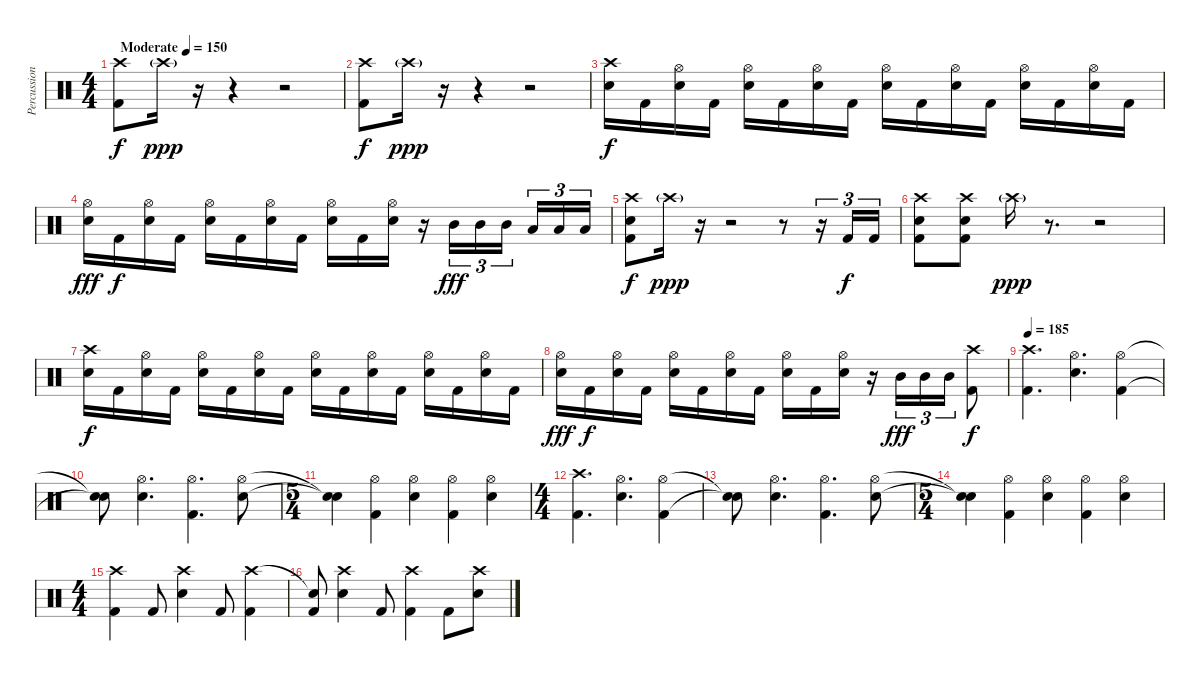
\track ("Percussion" "Percussion") {instrument percussion}
\staff {score}
\articulation defaults
\ts (4 4)
\tempo (150 "Moderate")
\clef neutral
\ks c
("Crash high (hit)" "Kick (hit) 2").8{dy f} "Crash high (hit)"{g}.16{dy ppp} r.16 r.4 r.2 |
("Crash high (hit)" "Kick (hit) 2").8{dy f} "Crash high (hit)"{g}.16{dy ppp} r.16 r.4 r.2 |
("Crash high (hit)" "Snare (hit) 2").16{dy f} "Kick (hit) 2".16 ("Hi-Hat (open)" "Snare (hit) 2").16 "Kick (hit) 2".16 ("Hi-Hat (open)" "Snare (hit) 2").16 "Kick (hit) 2".16 ("Hi-Hat (open)" "Snare (hit) 2").16 "Kick (hit) 2".16 ("Hi-Hat (open)" "Snare (hit) 2").16 "Kick (hit) 2".16 ("Hi-Hat (open)" "Snare (hit) 2").16 "Kick (hit) 2".16 ("Hi-Hat (open)" "Snare (hit) 2").16 "Kick (hit) 2".16 ("Hi-Hat (open)" "Snare (hit) 2").16 "Kick (hit) 2".16 |
("Hi-Hat (open)" "Snare (hit) 2").16{dy fff} "Kick (hit) 2".16{dy f} ("Hi-Hat (open)" "Snare (hit) 2").16 "Kick (hit) 2".16 ("Hi-Hat (open)" "Snare (hit) 2").16 "Kick (hit) 2".16 ("Hi-Hat (open)" "Snare (hit) 2").16 "Kick (hit) 2".16 ("Hi-Hat (open)" "Snare (hit) 2").16 "Kick (hit) 2".16 ("Hi-Hat (open)" "Snare (hit) 2").16 r.16 "Mid Tom (hit)".16{tu (3 2) dy fff} "Mid Tom (hit)".16{tu (3 2)} "Mid Tom (hit)".16{tu (3 2) beam splitsecondary} "Low Tom (hit)".16{tu (3 2)} "Low Tom (hit)".16{tu (3 2)} "Low Tom (hit)".16{tu (3 2)} |
("Crash high (hit)" "Snare (hit) 2" "Kick (hit) 2").8{dy f} "Crash high (hit)"{g}.16{dy ppp} r.16 r.2 r.8 r.16{tu (3 2)} "Kick (hit) 2".16{tu (3 2) dy f} "Kick (hit) 2".16{tu (3 2)} |
("Crash high (hit)" "Snare (hit) 2" "Kick (hit) 2").8 ("Crash high (hit)" "Snare (hit) 2" "Kick (hit) 2").8 "Crash high (hit)"{g}.16{dy ppp} r.8{d} r.2 |
("Crash high (hit)" "Snare (hit) 2").16{dy f} "Kick (hit) 2".16 ("Hi-Hat (open)" "Snare (hit) 2").16 "Kick (hit) 2".16 ("Hi-Hat (open)" "Snare (hit) 2").16 "Kick (hit) 2".16 ("Hi-Hat (open)" "Snare (hit) 2").16 "Kick (hit) 2".16 ("Hi-Hat (open)" "Snare (hit) 2").16 "Kick (hit) 2".16 ("Hi-Hat (open)" "Snare (hit) 2").16 "Kick (hit) 2".16 ("Hi-Hat (open)" "Snare (hit) 2").16 "Kick (hit) 2".16 ("Hi-Hat (open)" "Snare (hit) 2").16 "Kick (hit) 2".16 |
("Hi-Hat (open)" "Snare (hit) 2").16{dy fff} "Kick (hit) 2".16{dy f} ("Hi-Hat (open)" "Snare (hit) 2").16 "Kick (hit) 2".16 ("Hi-Hat (open)" "Snare (hit) 2").16 "Kick (hit) 2".16 ("Hi-Hat (open)" "Snare (hit) 2").16 "Kick (hit) 2".16 ("Hi-Hat (open)" "Snare (hit) 2").16 "Kick (hit) 2".16 ("Hi-Hat (open)" "Snare (hit) 2").16 r.16 "Mid Tom (hit)".16{tu (3 2) dy fff} "Mid Tom (hit)".16{tu (3 2)} "Mid Tom (hit)".16{tu (3 2)} ("Crash high (hit)" "Kick (hit) 2").8{dy f} |
\tempo 185
("Crash high (hit)" "Kick (hit) 2").4{d} ("Hi-Hat (open)" "Snare (hit) 2").4{d} ("Hi-Hat (open)" "Kick (hit) 2").4 |
("Snare (hit)"{t} "Snare (hit)"{t}).8 ("Hi-Hat (open)" "Snare (hit) 2").4{d} ("Hi-Hat (open)" "Kick (hit) 2").4{d} ("Hi-Hat (open)" "Snare (hit) 2").8 |
\ts (5 4)
("Snare (hit)"{t} "Snare (hit)"{t}).4 ("Hi-Hat (open)" "Kick (hit) 2").4 ("Hi-Hat (open)" "Snare (hit) 2").4 ("Hi-Hat (open)" "Kick (hit) 2").4 ("Hi-Hat (open)" "Snare (hit) 2").4 |
\ts (4 4)
("Crash high (hit)" "Kick (hit) 2").4{d} ("Hi-Hat (open)" "Snare (hit) 2").4{d} ("Hi-Hat (open)" "Kick (hit) 2").4 |
("Snare (hit)"{t} "Snare (hit)"{t}).8 ("Hi-Hat (open)" "Snare (hit) 2").4{d} ("Hi-Hat (open)" "Kick (hit) 2").4{d} ("Hi-Hat (open)" "Snare (hit) 2").8 |
\ts (5 4)
("Snare (hit)"{t} "Snare (hit)"{t}).4 ("Hi-Hat (open)" "Kick (hit) 2").4 ("Hi-Hat (open)" "Snare (hit) 2").4 ("Hi-Hat (open)" "Kick (hit) 2").4 ("Hi-Hat (open)" "Snare (hit) 2").4 |
\ts (4 4)
("Crash high (hit)" "Kick (hit) 2").4 "Kick (hit) 2".8 ("Crash high (hit)" "Snare (hit) 2").4 "Kick (hit) 2".8 ("Crash high (hit)" "Kick (hit) 2").4 |
("Snare (hit)"{t} "Kick (hit) 2").8 ("Crash high (hit)" "Snare (hit) 2").4 "Kick (hit) 2".8 ("Crash high (hit)" "Kick (hit) 2").4 "Kick (hit) 2".8 ("Crash high (hit)" "Snare (hit) 2").8
